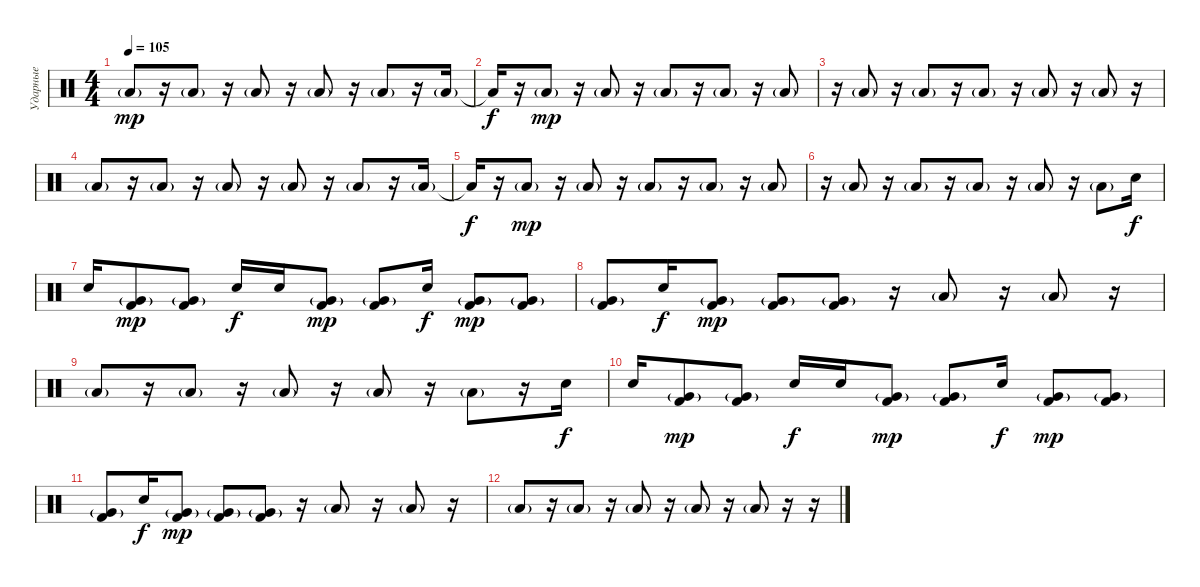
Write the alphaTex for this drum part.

\track ("Ударные" "Ударные") {instrument percussion}
\staff {score}
\articulation defaults
\ts (4 4)
\tempo 105
\clef neutral
\ks c "Low Floor Tom (hit)"{g}.8{dy mp}
r.16 "Low Floor Tom (hit)"{g}.8 r.16 "Low Floor Tom (hit)"{g}.8 r.16 "Low Floor Tom (hit)"{g}.8 r.16 "Low Floor Tom (hit)"{g}.8 r.16 "Low Floor Tom (hit)"{g}.16 |
"Low Floor Tom (hit)"{t}.16{dy f} r.16 "Low Floor Tom (hit)"{g}.8{dy mp} r.16 "Low Floor Tom (hit)"{g}.8 r.16 "Low Floor Tom (hit)"{g}.8 r.16 "Low Floor Tom (hit)"{g}.8 r.16 "Low Floor Tom (hit)"{g}.8 |
r.16 "Low Floor Tom (hit)"{g}.8 r.16 "Low Floor Tom (hit)"{g}.8 r.16 "Low Floor Tom (hit)"{g}.8 r.16 "Low Floor Tom (hit)"{g}.8 r.16 "Low Floor Tom (hit)"{g}.8 r.16 |
"Low Floor Tom (hit)"{g}.8 r.16 "Low Floor Tom (hit)"{g}.8 r.16 "Low Floor Tom (hit)"{g}.8 r.16 "Low Floor Tom (hit)"{g}.8 r.16 "Low Floor Tom (hit)"{g}.8 r.16 "Low Floor Tom (hit)"{g}.16 |
"Low Floor Tom (hit)"{t}.16{dy f} r.16 "Low Floor Tom (hit)"{g}.8{dy mp} r.16 "Low Floor Tom (hit)"{g}.8 r.16 "Low Floor Tom (hit)"{g}.8 r.16 "Low Floor Tom (hit)"{g}.8 r.16 "Low Floor Tom (hit)"{g}.8 |
r.16 "Low Floor Tom (hit)"{g}.8 r.16 "Low Floor Tom (hit)"{g}.8 r.16 "Low Floor Tom (hit)"{g}.8 r.16 "Low Floor Tom (hit)"{g}.8 r.16 "Low Floor Tom (hit)"{g}.8 "Electric Snare (hit)".16{dy f} |
"Electric Snare (hit)".16 ("Kick (hit) 2" "Very Low Tom (hit)"{g}).8{dy mp} ("Kick (hit) 2" "Very Low Tom (hit)"{g}).8 "Electric Snare (hit)".16{dy f} "Electric Snare (hit)".16 ("Kick (hit) 2" "Very Low Tom (hit)"{g}).8{dy mp} ("Kick (hit) 2" "Very Low Tom (hit)"{g}).8 "Electric Snare (hit)".16{dy f} ("Kick (hit) 2" "Very Low Tom (hit)"{g}).8{dy mp} ("Kick (hit) 2" "Very Low Tom (hit)"{g}).8 |
("Kick (hit) 2" "Very Low Tom (hit)"{g}).8 "Electric Snare (hit)".16{dy f} ("Kick (hit) 2" "Very Low Tom (hit)"{g}).8{dy mp} ("Kick (hit) 2" "Very Low Tom (hit)"{g}).8 ("Kick (hit) 2" "Very Low Tom (hit)"{g}).8 r.16 "Low Floor Tom (hit)"{g}.8 r.16 "Low Floor Tom (hit)"{g}.8 r.16 |
"Low Floor Tom (hit)"{g}.8 r.16 "Low Floor Tom (hit)"{g}.8 r.16 "Low Floor Tom (hit)"{g}.8 r.16 "Low Floor Tom (hit)"{g}.8 r.16 "Low Floor Tom (hit)"{g}.8 r.16 "Electric Snare (hit)".16{dy f} |
"Electric Snare (hit)".16 ("Kick (hit) 2" "Very Low Tom (hit)"{g}).8{dy mp} ("Kick (hit) 2" "Very Low Tom (hit)"{g}).8 "Electric Snare (hit)".16{dy f} "Electric Snare (hit)".16 ("Kick (hit) 2" "Very Low Tom (hit)"{g}).8{dy mp} ("Kick (hit) 2" "Very Low Tom (hit)"{g}).8 "Electric Snare (hit)".16{dy f} ("Kick (hit) 2" "Very Low Tom (hit)"{g}).8{dy mp} ("Kick (hit) 2" "Very Low Tom (hit)"{g}).8 |
("Kick (hit) 2" "Very Low Tom (hit)"{g}).8 "Electric Snare (hit)".16{dy f} ("Kick (hit) 2" "Very Low Tom (hit)"{g}).8{dy mp} ("Kick (hit) 2" "Very Low Tom (hit)"{g}).8 ("Kick (hit) 2" "Very Low Tom (hit)"{g}).8 r.16 "Low Floor Tom (hit)"{g}.8 r.16 "Low Floor Tom (hit)"{g}.8 r.16 |
"Low Floor Tom (hit)"{g}.8 r.16 "Low Floor Tom (hit)"{g}.8 r.16 "Low Floor Tom (hit)"{g}.8 r.16 "Low Floor Tom (hit)"{g}.8 r.16 "Low Floor Tom (hit)"{g}.8 r.16 r.16
